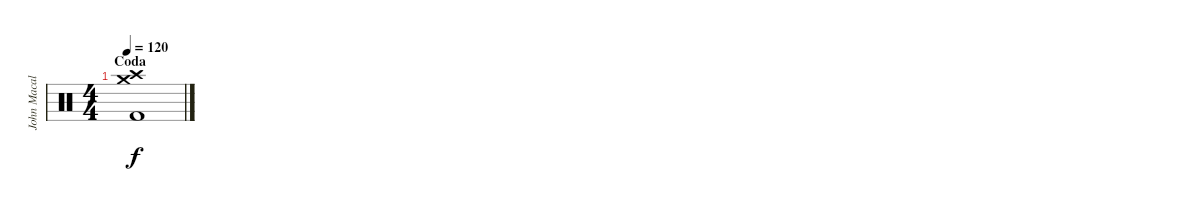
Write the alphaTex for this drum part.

\track ("John Macaluso" "John Macal") {instrument percussion}
\staff {score}
\articulation defaults
\ts (4 4)
\section ("" "Coda")
\tempo 120
\clef neutral
\ks c
("Crash medium (hit)" "Crash high (hit)" "Kick (hit) 2").1{dy f}
